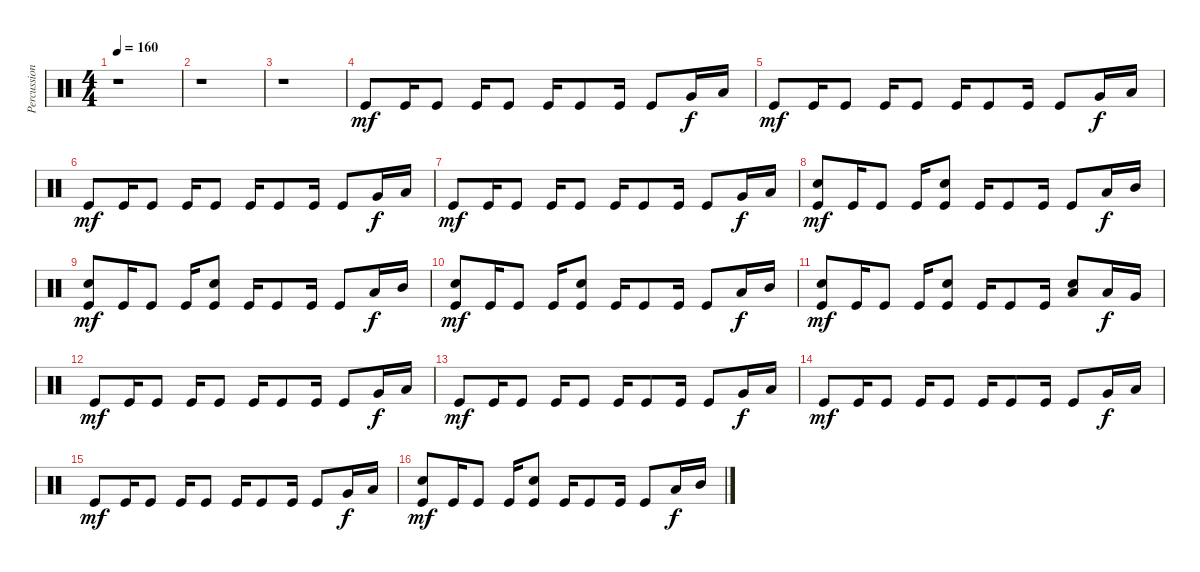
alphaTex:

\track ("Percussion" "Percussion") {instrument percussion}
\staff {score}
\articulation defaults
\ts (4 4)
\tempo 160
\clef neutral
\ks c
r.1{dy mf} |
r.1 |
r.1 |
"Kick (hit)".8{volume 13} "Kick (hit)".16 "Kick (hit)".8 "Kick (hit)".16 "Kick (hit)".8 "Kick (hit)".16 "Kick (hit)".8 "Kick (hit)".16 "Kick (hit)".8 "Very Low Tom (hit)".16{dy f} "Low Tom (hit)".16 |
"Kick (hit)".8{dy mf} "Kick (hit)".16 "Kick (hit)".8 "Kick (hit)".16 "Kick (hit)".8 "Kick (hit)".16 "Kick (hit)".8 "Kick (hit)".16 "Kick (hit)".8 "Very Low Tom (hit)".16{dy f} "Low Tom (hit)".16 |
"Kick (hit)".8{dy mf} "Kick (hit)".16 "Kick (hit)".8 "Kick (hit)".16 "Kick (hit)".8 "Kick (hit)".16 "Kick (hit)".8 "Kick (hit)".16 "Kick (hit)".8 "Very Low Tom (hit)".16{dy f} "Low Tom (hit)".16 |
"Kick (hit)".8{dy mf} "Kick (hit)".16 "Kick (hit)".8 "Kick (hit)".16 "Kick (hit)".8 "Kick (hit)".16 "Kick (hit)".8 "Kick (hit)".16 "Kick (hit)".8 "Very Low Tom (hit)".16{dy f} "Low Tom (hit)".16 |
("Kick (hit)" "Electric Snare (hit)").8{dy mf} "Kick (hit)".16 "Kick (hit)".8 "Kick (hit)".16 ("Kick (hit)" "Snare (hit) 2").8 "Kick (hit)".16 "Kick (hit)".8 "Kick (hit)".16 "Kick (hit)".8 "Low Tom (hit)".16{dy f} "Mid Tom (hit)".16 |
("Kick (hit)" "Electric Snare (hit)").8{dy mf} "Kick (hit)".16 "Kick (hit)".8 "Kick (hit)".16 ("Kick (hit)" "Electric Snare (hit)").8 "Kick (hit)".16 "Kick (hit)".8 "Kick (hit)".16 "Kick (hit)".8 "Low Tom (hit)".16{dy f} "Mid Tom (hit)".16 |
("Kick (hit)" "Electric Snare (hit)").8{dy mf} "Kick (hit)".16 "Kick (hit)".8 "Kick (hit)".16 ("Kick (hit)" "Snare (hit) 2").8 "Kick (hit)".16 "Kick (hit)".8 "Kick (hit)".16 "Kick (hit)".8 "Low Tom (hit)".16{dy f} "Mid Tom (hit)".16 |
("Kick (hit)" "Electric Snare (hit)").8{dy mf} "Kick (hit)".16 "Kick (hit)".8 "Kick (hit)".16 ("Kick (hit)" "Electric Snare (hit)").8 "Kick (hit)".16 "Kick (hit)".8 "Kick (hit)".16 ("Low Tom (hit)" "Electric Snare (hit)").8 "Low Tom (hit)".16{dy f} "Very Low Tom (hit)".16 |
"Kick (hit)".8{dy mf} "Kick (hit)".16 "Kick (hit)".8 "Kick (hit)".16 "Kick (hit)".8 "Kick (hit)".16 "Kick (hit)".8 "Kick (hit)".16 "Kick (hit)".8 "Very Low Tom (hit)".16{dy f} "Low Tom (hit)".16 |
"Kick (hit)".8{dy mf} "Kick (hit)".16 "Kick (hit)".8 "Kick (hit)".16 "Kick (hit)".8 "Kick (hit)".16 "Kick (hit)".8 "Kick (hit)".16 "Kick (hit)".8 "Very Low Tom (hit)".16{dy f} "Low Tom (hit)".16 |
"Kick (hit)".8{dy mf} "Kick (hit)".16 "Kick (hit)".8 "Kick (hit)".16 "Kick (hit)".8 "Kick (hit)".16 "Kick (hit)".8 "Kick (hit)".16 "Kick (hit)".8 "Very Low Tom (hit)".16{dy f} "Low Tom (hit)".16 |
"Kick (hit)".8{dy mf} "Kick (hit)".16 "Kick (hit)".8 "Kick (hit)".16 "Kick (hit)".8 "Kick (hit)".16 "Kick (hit)".8 "Kick (hit)".16 "Kick (hit)".8 "Very Low Tom (hit)".16{dy f} "Low Tom (hit)".16 |
("Kick (hit)" "Electric Snare (hit)").8{dy mf} "Kick (hit)".16 "Kick (hit)".8 "Kick (hit)".16 ("Kick (hit)" "Snare (hit) 2").8 "Kick (hit)".16 "Kick (hit)".8 "Kick (hit)".16 "Kick (hit)".8 "Low Tom (hit)".16{dy f} "Mid Tom (hit)".16
